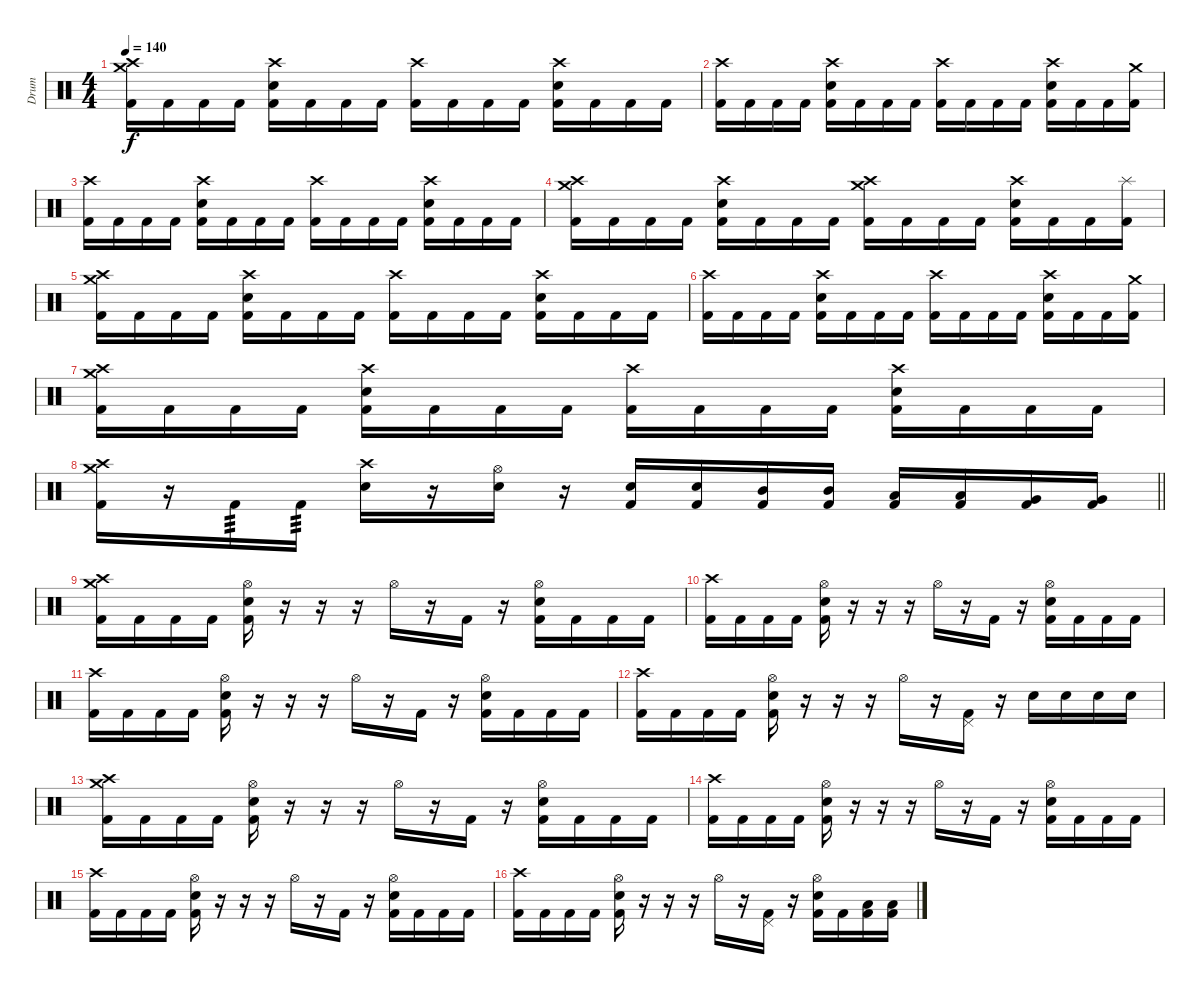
\track ("Drum" "Drum") {instrument percussion}
\staff {score}
\articulation defaults
\ts (4 4)
\tempo 140
\clef neutral
\ks c
("Crash high (hit)" "Crash medium (hit)" "Kick (hit) 2").16{dy f} "Kick (hit) 2".16 "Kick (hit) 2".16 "Kick (hit) 2".16 ("Crash high (hit)" "Snare (hit) 2" "Kick (hit) 2").16 "Kick (hit) 2".16 "Kick (hit) 2".16 "Kick (hit) 2".16 ("Crash high (hit)" "Kick (hit) 2").16 "Kick (hit) 2".16 "Kick (hit) 2".16 "Kick (hit) 2".16 ("Crash high (hit)" "Snare (hit) 2" "Kick (hit) 2").16 "Kick (hit) 2".16 "Kick (hit) 2".16 "Kick (hit) 2".16 |
("Crash high (hit)" "Kick (hit) 2").16 "Kick (hit) 2".16 "Kick (hit) 2".16 "Kick (hit) 2".16 ("Crash high (hit)" "Snare (hit) 2" "Kick (hit) 2").16 "Kick (hit) 2".16 "Kick (hit) 2".16 "Kick (hit) 2".16 ("Crash high (hit)" "Kick (hit) 2").16 "Kick (hit) 2".16 "Kick (hit) 2".16 "Kick (hit) 2".16 ("Crash high (hit)" "Snare (hit) 2" "Kick (hit) 2").16 "Kick (hit) 2".16 "Kick (hit) 2".16 ("Crash medium (hit)" "Kick (hit) 2").16 |
("Crash high (hit)" "Kick (hit) 2").16 "Kick (hit) 2".16 "Kick (hit) 2".16 "Kick (hit) 2".16 ("Crash high (hit)" "Snare (hit) 2" "Kick (hit) 2").16 "Kick (hit) 2".16 "Kick (hit) 2".16 "Kick (hit) 2".16 ("Crash high (hit)" "Kick (hit) 2").16 "Kick (hit) 2".16 "Kick (hit) 2".16 "Kick (hit) 2".16 ("Crash high (hit)" "Snare (hit) 2" "Kick (hit) 2").16 "Kick (hit) 2".16 "Kick (hit) 2".16 "Kick (hit) 2".16 |
("Crash high (hit)" "Crash medium (hit)" "Kick (hit) 2").16 "Kick (hit) 2".16 "Kick (hit) 2".16 "Kick (hit) 2".16 ("Crash high (hit)" "Snare (hit) 2" "Kick (hit) 2").16 "Kick (hit) 2".16 "Kick (hit) 2".16 "Kick (hit) 2".16 ("Crash high (hit)" "Crash medium (hit)" "Kick (hit) 2").16 "Kick (hit) 2".16 "Kick (hit) 2".16 "Kick (hit) 2".16 ("Crash high (hit)" "Snare (hit) 2" "Kick (hit) 2").16 "Kick (hit) 2".16 "Kick (hit) 2".16 ("Splash (hit)" "Kick (hit) 2").16 |
("Crash high (hit)" "Crash medium (hit)" "Kick (hit) 2").16 "Kick (hit) 2".16 "Kick (hit) 2".16 "Kick (hit) 2".16 ("Crash high (hit)" "Snare (hit) 2" "Kick (hit) 2").16 "Kick (hit) 2".16 "Kick (hit) 2".16 "Kick (hit) 2".16 ("Crash high (hit)" "Kick (hit) 2").16 "Kick (hit) 2".16 "Kick (hit) 2".16 "Kick (hit) 2".16 ("Crash high (hit)" "Snare (hit) 2" "Kick (hit) 2").16 "Kick (hit) 2".16 "Kick (hit) 2".16 "Kick (hit) 2".16 |
("Crash high (hit)" "Kick (hit) 2").16 "Kick (hit) 2".16 "Kick (hit) 2".16 "Kick (hit) 2".16 ("Crash high (hit)" "Snare (hit) 2" "Kick (hit) 2").16 "Kick (hit) 2".16 "Kick (hit) 2".16 "Kick (hit) 2".16 ("Crash high (hit)" "Kick (hit) 2").16 "Kick (hit) 2".16 "Kick (hit) 2".16 "Kick (hit) 2".16 ("Crash high (hit)" "Snare (hit) 2" "Kick (hit) 2").16 "Kick (hit) 2".16 "Kick (hit) 2".16 ("Crash medium (hit)" "Kick (hit) 2").16 |
("Crash high (hit)" "Crash medium (hit)" "Kick (hit) 2").16 "Kick (hit) 2".16 "Kick (hit) 2".16 "Kick (hit) 2".16 ("Crash high (hit)" "Snare (hit) 2" "Kick (hit) 2").16 "Kick (hit) 2".16 "Kick (hit) 2".16 "Kick (hit) 2".16 ("Crash high (hit)" "Kick (hit) 2").16 "Kick (hit) 2".16 "Kick (hit) 2".16 "Kick (hit) 2".16 ("Crash high (hit)" "Snare (hit) 2" "Kick (hit) 2").16 "Kick (hit) 2".16 "Kick (hit) 2".16 "Kick (hit) 2".16 |
\barLineRight lightlight
("Crash high (hit)" "Crash medium (hit)" "Kick (hit) 2").16 r.16 "Kick (hit) 2".16{tp 3} "Kick (hit) 2".16{tp 3} ("Crash high (hit)" "Snare (hit) 2").16 r.16 ("Hi-Hat (open)" "Snare (hit) 2").16 r.16 ("Snare (hit) 2" "Kick (hit) 2").16 ("Snare (hit) 2" "Kick (hit) 2").16 ("Mid Tom (hit)" "Kick (hit) 2").16 ("Mid Tom (hit)" "Kick (hit) 2").16 ("Low Tom (hit)" "Kick (hit) 2").16 ("Low Tom (hit)" "Kick (hit) 2").16 ("Very Low Tom (hit)" "Kick (hit) 2").16 ("Very Low Tom (hit)" "Kick (hit) 2").16 |
\section ("" "")
("Crash high (hit)" "Crash medium (hit)" "Kick (hit) 2").16 "Kick (hit) 2".16 "Kick (hit) 2".16 "Kick (hit) 2".16 ("Hi-Hat (open)" "Snare (hit) 2" "Kick (hit) 2").16 r.16 r.16 r.16 "Hi-Hat (open)".16 r.16 "Kick (hit) 2".16 r.16 ("Hi-Hat (open)" "Snare (hit) 2" "Kick (hit) 2").16 "Kick (hit) 2".16 "Kick (hit) 2".16 "Kick (hit) 2".16 |
("Crash high (hit)" "Kick (hit) 2").16 "Kick (hit) 2".16 "Kick (hit) 2".16 "Kick (hit) 2".16 ("Hi-Hat (open)" "Snare (hit) 2" "Kick (hit) 2").16 r.16 r.16 r.16 "Hi-Hat (open)".16 r.16 "Kick (hit) 2".16 r.16 ("Hi-Hat (open)" "Snare (hit) 2" "Kick (hit) 2").16 "Kick (hit) 2".16 "Kick (hit) 2".16 "Kick (hit) 2".16 |
("Crash high (hit)" "Kick (hit) 2").16 "Kick (hit) 2".16 "Kick (hit) 2".16 "Kick (hit) 2".16 ("Hi-Hat (open)" "Snare (hit) 2" "Kick (hit) 2").16 r.16 r.16 r.16 "Hi-Hat (open)".16 r.16 "Kick (hit) 2".16 r.16 ("Hi-Hat (open)" "Snare (hit) 2" "Kick (hit) 2").16 "Kick (hit) 2".16 "Kick (hit) 2".16 "Kick (hit) 2".16 |
("Crash high (hit)" "Kick (hit) 2").16 "Kick (hit) 2".16 "Kick (hit) 2".16 "Kick (hit) 2".16 ("Hi-Hat (open)" "Snare (hit) 2" "Kick (hit) 2").16 r.16 r.16 r.16 "Hi-Hat (open)".16 r.16 ("Pedal Hi-Hat (hit)" "Kick (hit) 2").16 r.16 "Snare (hit) 2".16 "Snare (hit) 2".16 "Snare (hit) 2".16 "Snare (hit) 2".16 |
("Crash high (hit)" "Crash medium (hit)" "Kick (hit) 2").16 "Kick (hit) 2".16 "Kick (hit) 2".16 "Kick (hit) 2".16 ("Hi-Hat (open)" "Snare (hit) 2" "Kick (hit) 2").16 r.16 r.16 r.16 "Hi-Hat (open)".16 r.16 "Kick (hit) 2".16 r.16 ("Hi-Hat (open)" "Snare (hit) 2" "Kick (hit) 2").16 "Kick (hit) 2".16 "Kick (hit) 2".16 "Kick (hit) 2".16 |
("Crash high (hit)" "Kick (hit) 2").16 "Kick (hit) 2".16 "Kick (hit) 2".16 "Kick (hit) 2".16 ("Hi-Hat (open)" "Snare (hit) 2" "Kick (hit) 2").16 r.16 r.16 r.16 "Hi-Hat (open)".16 r.16 "Kick (hit) 2".16 r.16 ("Hi-Hat (open)" "Snare (hit) 2" "Kick (hit) 2").16 "Kick (hit) 2".16 "Kick (hit) 2".16 "Kick (hit) 2".16 |
("Crash high (hit)" "Kick (hit) 2").16 "Kick (hit) 2".16 "Kick (hit) 2".16 "Kick (hit) 2".16 ("Hi-Hat (open)" "Snare (hit) 2" "Kick (hit) 2").16 r.16 r.16 r.16 "Hi-Hat (open)".16 r.16 "Kick (hit) 2".16 r.16 ("Hi-Hat (open)" "Snare (hit) 2" "Kick (hit) 2").16 "Kick (hit) 2".16 "Kick (hit) 2".16 "Kick (hit) 2".16 |
("Crash high (hit)" "Kick (hit) 2").16 "Kick (hit) 2".16 "Kick (hit) 2".16 "Kick (hit) 2".16 ("Hi-Hat (open)" "Snare (hit) 2" "Kick (hit) 2").16 r.16 r.16 r.16 "Hi-Hat (open)".16 r.16 ("Pedal Hi-Hat (hit)" "Kick (hit) 2").16 r.16 ("Hi-Hat (open)" "Snare (hit) 2" "Kick (hit) 2").16 "Kick (hit) 2".16 ("Low Tom (hit)" "Kick (hit) 2").16 ("Low Tom (hit)" "Kick (hit) 2").16
